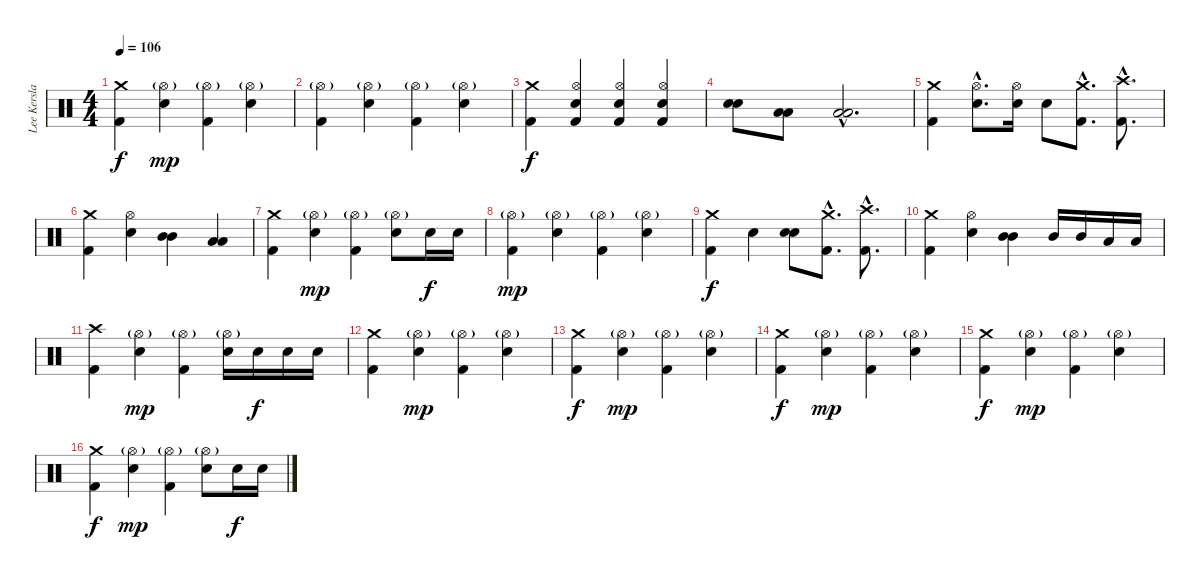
\track ("Lee Kerslake" "Lee Kersla") {instrument percussion}
\staff {score}
\articulation defaults
\ts (4 4)
\tempo 106
\clef neutral
\ks c
("Crash medium (hit)" "Kick (hit) 2").4{dy f} ("Hi-Hat (open)"{g} "Snare (hit) 2").4{dy mp} ("Hi-Hat (open)"{g} "Kick (hit) 2").4 ("Hi-Hat (open)"{g} "Snare (hit) 2").4 |
("Hi-Hat (open)"{g} "Kick (hit) 2").4 ("Hi-Hat (open)"{g} "Snare (hit) 2").4 ("Hi-Hat (open)"{g} "Kick (hit) 2").4 ("Hi-Hat (open)"{g} "Snare (hit) 2").4 |
("Crash medium (hit)" "Kick (hit) 2").4{dy f} ("Hi-Hat (open)" "Snare (hit) 2" "Kick (hit) 2").4 ("Hi-Hat (open)" "Snare (hit) 2" "Kick (hit) 2").4 ("Hi-Hat (open)" "Snare (hit) 2" "Kick (hit) 2").4 |
("Snare (hit) 2" "Snare (hit) 2").8{bd 240} ("Low Tom (hit)" "Low Tom (hit)").8{bd 240} ("Low Tom (hit)"{hac} "Low Tom (hit)"{hac}).2{d bd 240} |
("Crash medium (hit)" "Kick (hit) 2").4 ("Hi-Hat (open)"{hac} "Snare (hit) 2"{hac}).8{d} ("Hi-Hat (open)" "Snare (hit) 2").16 "Snare (hit) 2".8 ("Crash medium (hit)"{hac} "Kick (hit) 2"{hac}).8{d} ("Crash high (hit)"{hac} "Kick (hit) 2"{hac}).8{d} |
("Crash medium (hit)" "Kick (hit) 2").4 ("Hi-Hat (open)" "Snare (hit) 2").4 ("Mid Tom (hit)" "Mid Tom (hit)").4{bd 240} ("Low Tom (hit)" "Low Tom (hit)").4{bd 240} |
("Crash medium (hit)" "Kick (hit) 2").4 ("Hi-Hat (open)"{g} "Snare (hit) 2").4{dy mp} ("Hi-Hat (open)"{g} "Kick (hit) 2").4 ("Hi-Hat (open)"{g} "Snare (hit) 2").8 "Snare (hit) 2".16{dy f} "Snare (hit) 2".16 |
("Hi-Hat (open)"{g} "Kick (hit) 2").4{dy mp} ("Hi-Hat (open)"{g} "Snare (hit) 2").4 ("Hi-Hat (open)"{g} "Kick (hit) 2").4 ("Hi-Hat (open)"{g} "Snare (hit) 2").4 |
("Crash medium (hit)" "Kick (hit) 2").4{dy f} "Snare (hit) 2".4 ("Snare (hit) 2" "Snare (hit) 2").8{bd 240} ("Crash medium (hit)"{hac} "Kick (hit) 2"{hac}).8{d} ("Crash high (hit)"{hac} "Kick (hit) 2"{hac}).8{d} |
("Crash medium (hit)" "Kick (hit) 2").4 ("Hi-Hat (open)" "Snare (hit) 2").4 ("Mid Tom (hit)" "Mid Tom (hit)").4{bd 240} "Mid Tom (hit)".16 "Mid Tom (hit)".16 "Low Tom (hit)".16 "Low Tom (hit)".16 |
("Crash high (hit)" "Kick (hit) 2").4 ("Hi-Hat (open)"{g} "Snare (hit) 2").4{dy mp} ("Hi-Hat (open)"{g} "Kick (hit) 2").4 ("Hi-Hat (open)"{g} "Snare (hit) 2").16 "Snare (hit) 2".16{dy f} "Snare (hit) 2".16 "Snare (hit) 2".16 |
("Crash medium (hit)" "Kick (hit) 2").4 ("Hi-Hat (open)"{g} "Snare (hit) 2").4{dy mp} ("Hi-Hat (open)"{g} "Kick (hit) 2").4 ("Hi-Hat (open)"{g} "Snare (hit) 2").4 |
("Crash medium (hit)" "Kick (hit) 2").4{dy f} ("Hi-Hat (open)"{g} "Snare (hit) 2").4{dy mp} ("Hi-Hat (open)"{g} "Kick (hit) 2").4 ("Hi-Hat (open)"{g} "Snare (hit) 2").4 |
("Crash medium (hit)" "Kick (hit) 2").4{dy f} ("Hi-Hat (open)"{g} "Snare (hit) 2").4{dy mp} ("Hi-Hat (open)"{g} "Kick (hit) 2").4 ("Hi-Hat (open)"{g} "Snare (hit) 2").4 |
("Crash medium (hit)" "Kick (hit) 2").4{dy f} ("Hi-Hat (open)"{g} "Snare (hit) 2").4{dy mp} ("Hi-Hat (open)"{g} "Kick (hit) 2").4 ("Hi-Hat (open)"{g} "Snare (hit) 2").4 |
("Crash medium (hit)" "Kick (hit) 2").4{dy f} ("Hi-Hat (open)"{g} "Snare (hit) 2").4{dy mp} ("Hi-Hat (open)"{g} "Kick (hit) 2").4 ("Hi-Hat (open)"{g} "Snare (hit) 2").8 "Snare (hit) 2".16{dy f} "Snare (hit) 2".16
